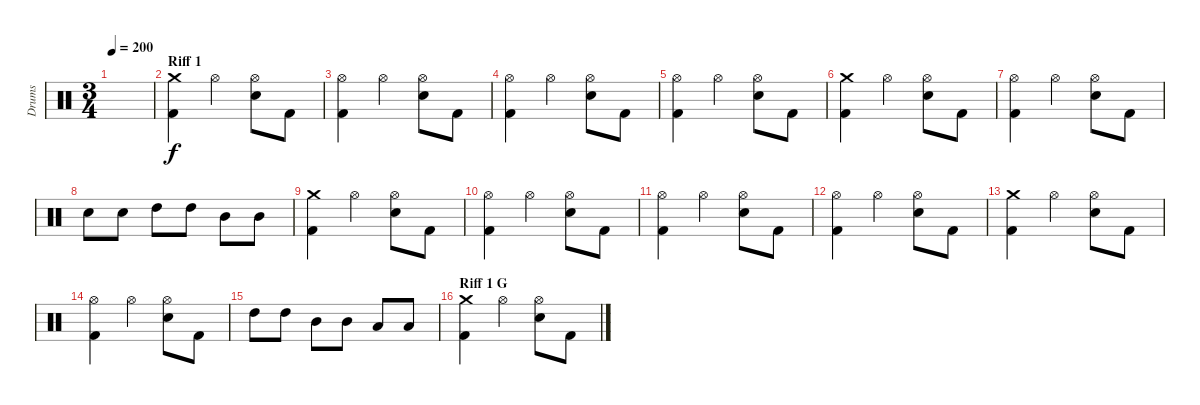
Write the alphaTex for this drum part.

\track ("Drums" "Drums") {instrument percussion}
\staff {score}
\articulation defaults
\ts (3 4)
\tempo 200
\clef neutral
\ks c
|
\section ("" "Riff 1")
("Crash medium (hit)" "Kick (hit) 2").4 "Hi-Hat (open)".4 ("Hi-Hat (open)" "Electric Snare (hit)").8 "Kick (hit) 2".8 |
("Hi-Hat (open)" "Kick (hit) 2").4 "Hi-Hat (open)".4 ("Hi-Hat (open)" "Electric Snare (hit)").8 "Kick (hit) 2".8 |
("Hi-Hat (open)" "Kick (hit) 2").4 "Hi-Hat (open)".4 ("Hi-Hat (open)" "Electric Snare (hit)").8 "Kick (hit) 2".8 |
("Hi-Hat (open)" "Kick (hit) 2").4 "Hi-Hat (open)".4 ("Hi-Hat (open)" "Electric Snare (hit)").8 "Kick (hit) 2".8 |
("Crash medium (hit)" "Kick (hit) 2").4 "Hi-Hat (open)".4 ("Hi-Hat (open)" "Electric Snare (hit)").8 "Kick (hit) 2".8 |
("Hi-Hat (open)" "Kick (hit) 2").4 "Hi-Hat (open)".4 ("Hi-Hat (open)" "Electric Snare (hit)").8 "Kick (hit) 2".8 |
"Electric Snare (hit)".8 "Electric Snare (hit)".8 "High Tom (hit)".8 "High Tom (hit)".8 "Mid Tom (hit)".8 "Mid Tom (hit)".8 |
("Crash medium (hit)" "Kick (hit) 2").4 "Hi-Hat (open)".4 ("Hi-Hat (open)" "Electric Snare (hit)").8 "Kick (hit) 2".8 |
("Hi-Hat (open)" "Kick (hit) 2").4 "Hi-Hat (open)".4 ("Hi-Hat (open)" "Electric Snare (hit)").8 "Kick (hit) 2".8 |
("Hi-Hat (open)" "Kick (hit) 2").4 "Hi-Hat (open)".4 ("Hi-Hat (open)" "Electric Snare (hit)").8 "Kick (hit) 2".8 |
("Hi-Hat (open)" "Kick (hit) 2").4 "Hi-Hat (open)".4 ("Hi-Hat (open)" "Electric Snare (hit)").8 "Kick (hit) 2".8 |
("Crash medium (hit)" "Kick (hit) 2").4 "Hi-Hat (open)".4 ("Hi-Hat (open)" "Electric Snare (hit)").8 "Kick (hit) 2".8 |
("Hi-Hat (open)" "Kick (hit) 2").4 "Hi-Hat (open)".4 ("Hi-Hat (open)" "Electric Snare (hit)").8 "Kick (hit) 2".8 |
"High Tom (hit)".8 "High Tom (hit)".8 "Mid Tom (hit)".8 "Mid Tom (hit)".8 "Low Tom (hit)".8 "Low Tom (hit)".8 |
\section ("" "Riff 1 G")
("Crash medium (hit)" "Kick (hit) 2").4 "Hi-Hat (open)".4 ("Hi-Hat (open)" "Electric Snare (hit)").8 "Kick (hit) 2".8
